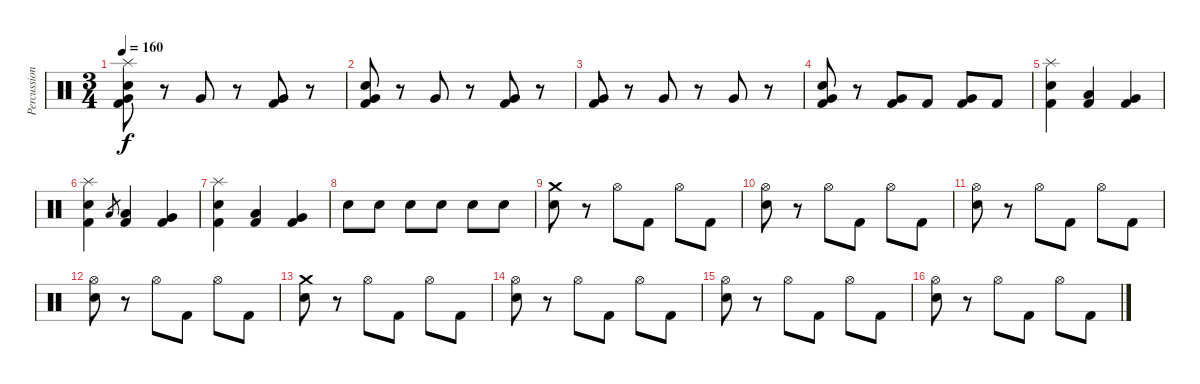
\track ("Percussion" "Percussion") {instrument percussion}
\staff {score}
\articulation defaults
\ts (3 4)
\tempo 160
\clef neutral
\ks c
("Splash (hit)" "Snare (hit) 2" "Kick (hit) 2" "Very Low Tom (hit)").8{dy f} r.8 "Very Low Tom (hit)".8 r.8 ("Kick (hit) 2" "Very Low Tom (hit)").8 r.8 |
("Snare (hit) 2" "Kick (hit) 2" "Very Low Tom (hit)").8 r.8 "Very Low Tom (hit)".8 r.8 ("Kick (hit) 2" "Very Low Tom (hit)").8 r.8 |
("Kick (hit) 2" "Very Low Tom (hit)").8 r.8 "Very Low Tom (hit)".8 r.8 "Very Low Tom (hit)".8 r.8 |
("Snare (hit) 2" "Kick (hit) 2" "Very Low Tom (hit)").8 r.8 ("Kick (hit) 2" "Very Low Tom (hit)").8 "Kick (hit) 2".8 ("Kick (hit) 2" "Very Low Tom (hit)").8 "Kick (hit) 2".8 |
("Splash (hit)" "Snare (hit) 2" "Kick (hit) 2").4 ("Low Tom (hit)" "Kick (hit) 2").4 ("Very Low Tom (hit)" "Kick (hit) 2").4 |
("Splash (hit)" "Snare (hit) 2" "Kick (hit) 2").4 "Low Tom (hit)".8{gr} ("Low Tom (hit)" "Kick (hit) 2").4 ("Very Low Tom (hit)" "Kick (hit) 2").4 |
("Splash (hit)" "Snare (hit) 2" "Kick (hit) 2").4 ("Low Tom (hit)" "Kick (hit) 2").4 ("Very Low Tom (hit)" "Kick (hit) 2").4 |
"Snare (hit) 2".8 "Snare (hit) 2".8 "Snare (hit) 2".8 "Snare (hit) 2".8 "Snare (hit) 2".8 "Snare (hit) 2".8 |
("Crash medium (hit)" "Snare (hit) 2").8 r.8 "Hi-Hat (open)".8 "Kick (hit) 2".8 "Hi-Hat (open)".8 "Kick (hit) 2".8 |
("Hi-Hat (open)" "Snare (hit) 2").8 r.8 "Hi-Hat (open)".8 "Kick (hit) 2".8 "Hi-Hat (open)".8 "Kick (hit) 2".8 |
("Hi-Hat (open)" "Snare (hit) 2").8 r.8 "Hi-Hat (open)".8 "Kick (hit) 2".8 "Hi-Hat (open)".8 "Kick (hit) 2".8 |
("Hi-Hat (open)" "Snare (hit) 2").8 r.8 "Hi-Hat (open)".8 "Kick (hit) 2".8 "Hi-Hat (open)".8 "Kick (hit) 2".8 |
("Crash medium (hit)" "Snare (hit) 2").8 r.8 "Hi-Hat (open)".8 "Kick (hit) 2".8 "Hi-Hat (open)".8 "Kick (hit) 2".8 |
("Hi-Hat (open)" "Snare (hit) 2").8 r.8 "Hi-Hat (open)".8 "Kick (hit) 2".8 "Hi-Hat (open)".8 "Kick (hit) 2".8 |
("Hi-Hat (open)" "Snare (hit) 2").8 r.8 "Hi-Hat (open)".8 "Kick (hit) 2".8 "Hi-Hat (open)".8 "Kick (hit) 2".8 |
("Hi-Hat (open)" "Snare (hit) 2").8 r.8 "Hi-Hat (open)".8 "Kick (hit) 2".8 "Hi-Hat (open)".8 "Kick (hit) 2".8
